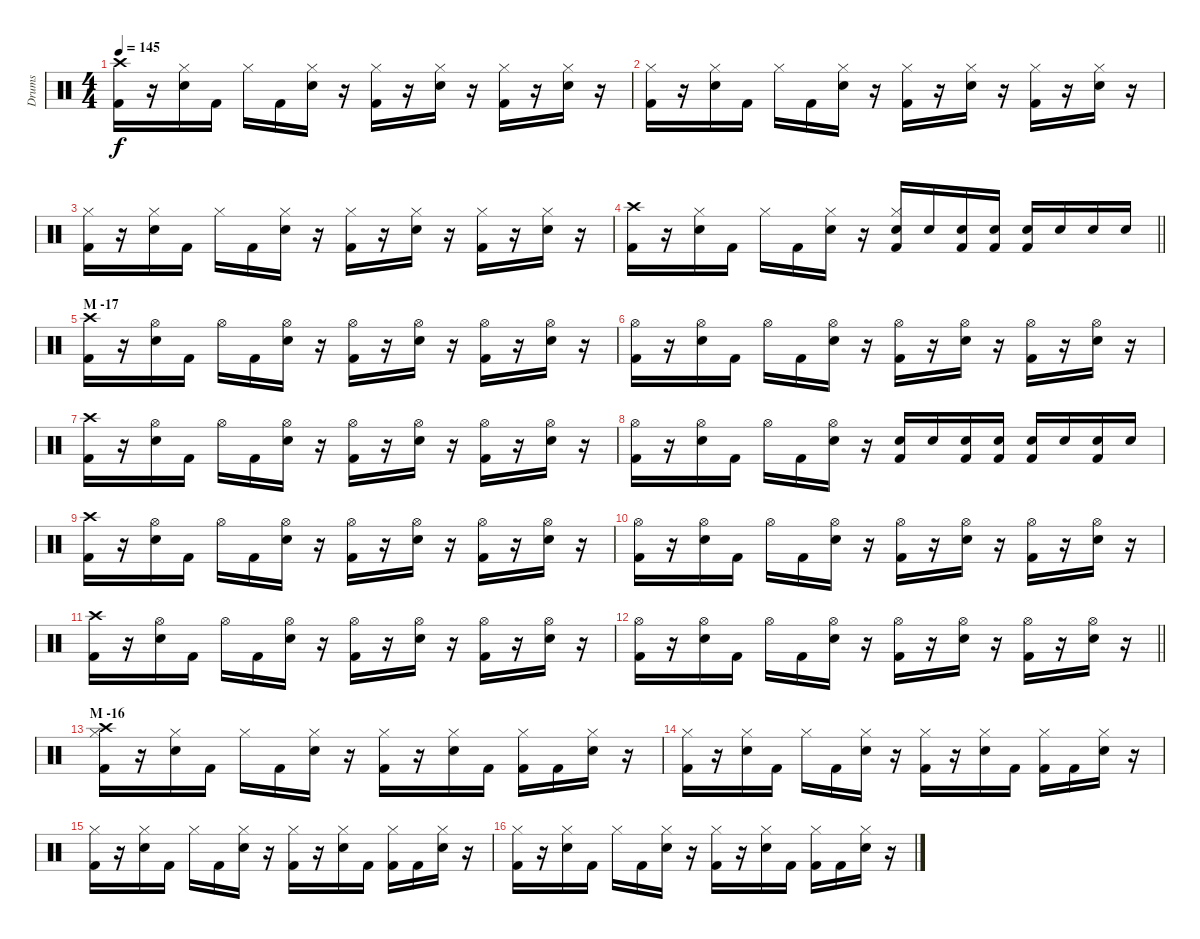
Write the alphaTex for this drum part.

\track ("Drums" "Drums") {instrument percussion}
\staff {score}
\articulation defaults
\ts (4 4)
\tempo 145
\clef neutral
\ks c
("Crash high (hit)" "Kick (hit) 2").16{dy f} r.16 ("Hi-Hat (closed)" "Electric Snare (hit)").16 "Kick (hit) 2".16 "Hi-Hat (closed)".16 "Kick (hit) 2".16 ("Hi-Hat (closed)" "Electric Snare (hit)").16 r.16 ("Hi-Hat (closed)" "Kick (hit) 2").16 r.16 ("Hi-Hat (closed)" "Electric Snare (hit)").16 r.16 ("Hi-Hat (closed)" "Kick (hit) 2").16 r.16 ("Hi-Hat (closed)" "Electric Snare (hit)").16 r.16 |
("Hi-Hat (closed)" "Kick (hit) 2").16 r.16 ("Hi-Hat (closed)" "Electric Snare (hit)").16 "Kick (hit) 2".16 "Hi-Hat (closed)".16 "Kick (hit) 2".16 ("Hi-Hat (closed)" "Electric Snare (hit)").16 r.16 ("Hi-Hat (closed)" "Kick (hit) 2").16 r.16 ("Hi-Hat (closed)" "Electric Snare (hit)").16 r.16 ("Hi-Hat (closed)" "Kick (hit) 2").16 r.16 ("Hi-Hat (closed)" "Electric Snare (hit)").16 r.16 |
("Hi-Hat (closed)" "Kick (hit) 2").16 r.16 ("Hi-Hat (closed)" "Electric Snare (hit)").16 "Kick (hit) 2".16 "Hi-Hat (closed)".16 "Kick (hit) 2".16 ("Hi-Hat (closed)" "Electric Snare (hit)").16 r.16 ("Hi-Hat (closed)" "Kick (hit) 2").16 r.16 ("Hi-Hat (closed)" "Electric Snare (hit)").16 r.16 ("Hi-Hat (closed)" "Kick (hit) 2").16 r.16 ("Hi-Hat (closed)" "Electric Snare (hit)").16 r.16 |
\barLineRight lightlight
("Crash high (hit)" "Kick (hit) 2").16 r.16 ("Hi-Hat (closed)" "Electric Snare (hit)").16 "Kick (hit) 2".16 "Hi-Hat (closed)".16 "Kick (hit) 2".16 ("Hi-Hat (closed)" "Electric Snare (hit)").16 r.16 ("Hi-Hat (closed)" "Electric Snare (hit)" "Kick (hit) 2").16 "Electric Snare (hit)".16 ("Electric Snare (hit)" "Kick (hit) 2").16 ("Electric Snare (hit)" "Kick (hit) 2").16 ("Electric Snare (hit)" "Kick (hit) 2").16 "Electric Snare (hit)".16 "Electric Snare (hit)".16 "Electric Snare (hit)".16 |
\section ("" "M -17")
("Crash high (hit)" "Kick (hit) 2").16 r.16 ("Hi-Hat (open)" "Electric Snare (hit)").16 "Kick (hit) 2".16 "Hi-Hat (open)".16 "Kick (hit) 2".16 ("Hi-Hat (open)" "Electric Snare (hit)").16 r.16 ("Hi-Hat (open)" "Kick (hit) 2").16 r.16 ("Hi-Hat (open)" "Electric Snare (hit)").16 r.16 ("Hi-Hat (open)" "Kick (hit) 2").16 r.16 ("Hi-Hat (open)" "Electric Snare (hit)").16 r.16 |
("Hi-Hat (open)" "Kick (hit) 2").16 r.16 ("Hi-Hat (open)" "Electric Snare (hit)").16 "Kick (hit) 2".16 "Hi-Hat (open)".16 "Kick (hit) 2".16 ("Hi-Hat (open)" "Electric Snare (hit)").16 r.16 ("Hi-Hat (open)" "Kick (hit) 2").16 r.16 ("Hi-Hat (open)" "Electric Snare (hit)").16 r.16 ("Hi-Hat (open)" "Kick (hit) 2").16 r.16 ("Hi-Hat (open)" "Electric Snare (hit)").16 r.16 |
("Crash high (hit)" "Kick (hit) 2").16 r.16 ("Hi-Hat (open)" "Electric Snare (hit)").16 "Kick (hit) 2".16 "Hi-Hat (open)".16 "Kick (hit) 2".16 ("Hi-Hat (open)" "Electric Snare (hit)").16 r.16 ("Hi-Hat (open)" "Kick (hit) 2").16 r.16 ("Hi-Hat (open)" "Electric Snare (hit)").16 r.16 ("Hi-Hat (open)" "Kick (hit) 2").16 r.16 ("Hi-Hat (open)" "Electric Snare (hit)").16 r.16 |
("Hi-Hat (open)" "Kick (hit) 2").16 r.16 ("Hi-Hat (open)" "Electric Snare (hit)").16 "Kick (hit) 2".16 "Hi-Hat (open)".16 "Kick (hit) 2".16 ("Hi-Hat (open)" "Electric Snare (hit)").16 r.16 ("Electric Snare (hit)" "Kick (hit) 2").16 "Electric Snare (hit)".16 ("Electric Snare (hit)" "Kick (hit) 2").16 ("Electric Snare (hit)" "Kick (hit) 2").16 ("Electric Snare (hit)" "Kick (hit) 2").16 "Electric Snare (hit)".16 ("Electric Snare (hit)" "Kick (hit) 2").16 "Electric Snare (hit)".16 |
("Crash high (hit)" "Kick (hit) 2").16 r.16 ("Hi-Hat (open)" "Electric Snare (hit)").16 "Kick (hit) 2".16 "Hi-Hat (open)".16 "Kick (hit) 2".16 ("Hi-Hat (open)" "Electric Snare (hit)").16 r.16 ("Hi-Hat (open)" "Kick (hit) 2").16 r.16 ("Hi-Hat (open)" "Electric Snare (hit)").16 r.16 ("Hi-Hat (open)" "Kick (hit) 2").16 r.16 ("Hi-Hat (open)" "Electric Snare (hit)").16 r.16 |
("Hi-Hat (open)" "Kick (hit) 2").16 r.16 ("Hi-Hat (open)" "Electric Snare (hit)").16 "Kick (hit) 2".16 "Hi-Hat (open)".16 "Kick (hit) 2".16 ("Hi-Hat (open)" "Electric Snare (hit)").16 r.16 ("Hi-Hat (open)" "Kick (hit) 2").16 r.16 ("Hi-Hat (open)" "Electric Snare (hit)").16 r.16 ("Hi-Hat (open)" "Kick (hit) 2").16 r.16 ("Hi-Hat (open)" "Electric Snare (hit)").16 r.16 |
("Crash high (hit)" "Kick (hit) 2").16 r.16 ("Hi-Hat (open)" "Electric Snare (hit)").16 "Kick (hit) 2".16 "Hi-Hat (open)".16 "Kick (hit) 2".16 ("Hi-Hat (open)" "Electric Snare (hit)").16 r.16 ("Hi-Hat (open)" "Kick (hit) 2").16 r.16 ("Hi-Hat (open)" "Electric Snare (hit)").16 r.16 ("Hi-Hat (open)" "Kick (hit) 2").16 r.16 ("Hi-Hat (open)" "Electric Snare (hit)").16 r.16 |
\barLineRight lightlight
("Hi-Hat (open)" "Kick (hit) 2").16 r.16 ("Hi-Hat (open)" "Electric Snare (hit)").16 "Kick (hit) 2".16 "Hi-Hat (open)".16 "Kick (hit) 2".16 ("Hi-Hat (open)" "Electric Snare (hit)").16 r.16 ("Hi-Hat (open)" "Kick (hit) 2").16 r.16 ("Hi-Hat (open)" "Electric Snare (hit)").16 r.16 ("Hi-Hat (open)" "Kick (hit) 2").16 r.16 ("Hi-Hat (open)" "Electric Snare (hit)").16 r.16 |
\section ("" "M -16")
("Crash high (hit)" "Hi-Hat (closed)" "Kick (hit) 2").16 r.16 ("Hi-Hat (closed)" "Electric Snare (hit)").16 "Kick (hit) 2".16 "Hi-Hat (closed)".16 "Kick (hit) 2".16 ("Hi-Hat (closed)" "Electric Snare (hit)").16 r.16 ("Hi-Hat (closed)" "Kick (hit) 2").16 r.16 ("Hi-Hat (closed)" "Electric Snare (hit)").16 "Kick (hit) 2".16 ("Hi-Hat (closed)" "Kick (hit) 2").16 "Kick (hit) 2".16 ("Hi-Hat (closed)" "Electric Snare (hit)").16 r.16 |
("Hi-Hat (closed)" "Kick (hit) 2").16 r.16 ("Hi-Hat (closed)" "Electric Snare (hit)").16 "Kick (hit) 2".16 "Hi-Hat (closed)".16 "Kick (hit) 2".16 ("Hi-Hat (closed)" "Electric Snare (hit)").16 r.16 ("Hi-Hat (closed)" "Kick (hit) 2").16 r.16 ("Hi-Hat (closed)" "Electric Snare (hit)").16 "Kick (hit) 2".16 ("Hi-Hat (closed)" "Kick (hit) 2").16 "Kick (hit) 2".16 ("Hi-Hat (closed)" "Electric Snare (hit)").16 r.16 |
("Hi-Hat (closed)" "Kick (hit) 2").16 r.16 ("Hi-Hat (closed)" "Electric Snare (hit)").16 "Kick (hit) 2".16 "Hi-Hat (closed)".16 "Kick (hit) 2".16 ("Hi-Hat (closed)" "Electric Snare (hit)").16 r.16 ("Hi-Hat (closed)" "Kick (hit) 2").16 r.16 ("Hi-Hat (closed)" "Electric Snare (hit)").16 "Kick (hit) 2".16 ("Hi-Hat (closed)" "Kick (hit) 2").16 "Kick (hit) 2".16 ("Hi-Hat (closed)" "Electric Snare (hit)").16 r.16 |
("Hi-Hat (closed)" "Kick (hit) 2").16 r.16 ("Hi-Hat (closed)" "Electric Snare (hit)").16 "Kick (hit) 2".16 "Hi-Hat (closed)".16 "Kick (hit) 2".16 ("Hi-Hat (closed)" "Electric Snare (hit)").16 r.16 ("Hi-Hat (closed)" "Kick (hit) 2").16 r.16 ("Hi-Hat (closed)" "Electric Snare (hit)").16 "Kick (hit) 2".16 ("Hi-Hat (closed)" "Kick (hit) 2").16 "Kick (hit) 2".16 ("Hi-Hat (closed)" "Electric Snare (hit)").16 r.16
